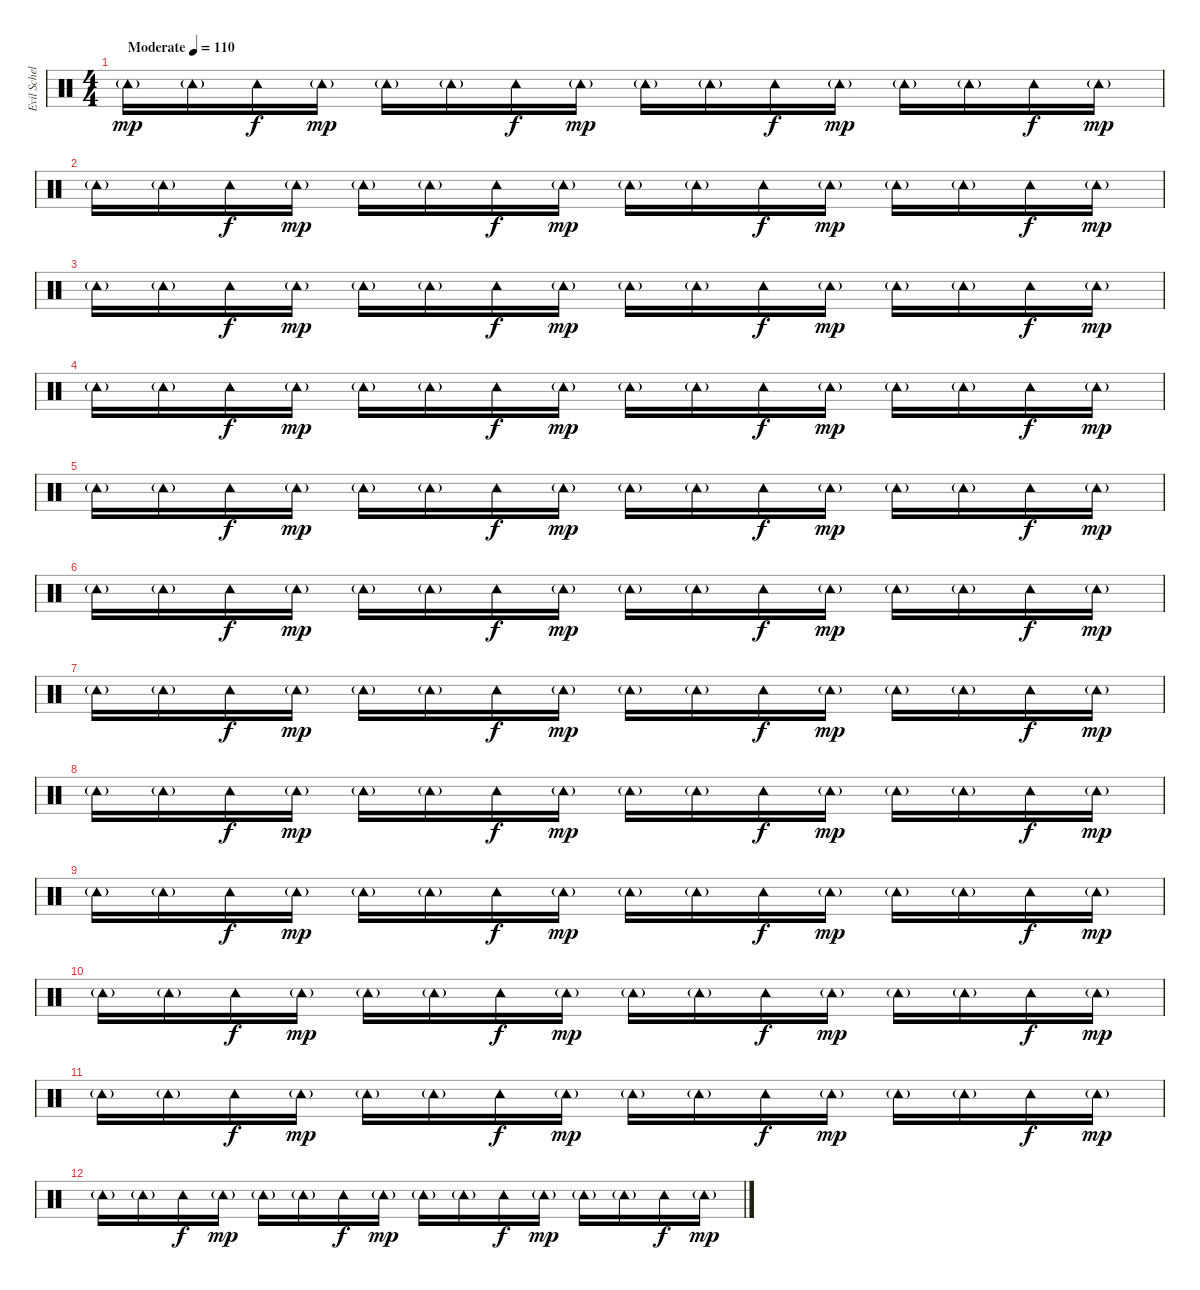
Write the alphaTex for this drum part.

\track ("Evil Schellenkranz" "Evil Schel") {instrument percussion}
\staff {score}
\articulation defaults
\ts (4 4)
\tempo (110 "Moderate")
\clef neutral
\ks c "Tambourine (hit)"{g}.16{dy mp} "Tambourine (hit)"{g}.16 "Tambourine (hit)".16{dy f} "Tambourine (hit)"{g}.16{dy mp} "Tambourine (hit)"{g}.16 "Tambourine (hit)"{g}.16 "Tambourine (hit)".16{dy f} "Tambourine (hit)"{g}.16{dy mp} "Tambourine (hit)"{g}.16 "Tambourine (hit)"{g}.16 "Tambourine (hit)".16{dy f} "Tambourine (hit)"{g}.16{dy mp} "Tambourine (hit)"{g}.16 "Tambourine (hit)"{g}.16 "Tambourine (hit)".16{dy f} "Tambourine (hit)"{g}.16{dy mp}
|
"Tambourine (hit)"{g}.16 "Tambourine (hit)"{g}.16 "Tambourine (hit)".16{dy f} "Tambourine (hit)"{g}.16{dy mp} "Tambourine (hit)"{g}.16 "Tambourine (hit)"{g}.16 "Tambourine (hit)".16{dy f} "Tambourine (hit)"{g}.16{dy mp} "Tambourine (hit)"{g}.16 "Tambourine (hit)"{g}.16 "Tambourine (hit)".16{dy f} "Tambourine (hit)"{g}.16{dy mp} "Tambourine (hit)"{g}.16 "Tambourine (hit)"{g}.16 "Tambourine (hit)".16{dy f} "Tambourine (hit)"{g}.16{dy mp} |
"Tambourine (hit)"{g}.16 "Tambourine (hit)"{g}.16 "Tambourine (hit)".16{dy f} "Tambourine (hit)"{g}.16{dy mp} "Tambourine (hit)"{g}.16 "Tambourine (hit)"{g}.16 "Tambourine (hit)".16{dy f} "Tambourine (hit)"{g}.16{dy mp} "Tambourine (hit)"{g}.16 "Tambourine (hit)"{g}.16 "Tambourine (hit)".16{dy f} "Tambourine (hit)"{g}.16{dy mp} "Tambourine (hit)"{g}.16 "Tambourine (hit)"{g}.16 "Tambourine (hit)".16{dy f} "Tambourine (hit)"{g}.16{dy mp} |
"Tambourine (hit)"{g}.16 "Tambourine (hit)"{g}.16 "Tambourine (hit)".16{dy f} "Tambourine (hit)"{g}.16{dy mp} "Tambourine (hit)"{g}.16 "Tambourine (hit)"{g}.16 "Tambourine (hit)".16{dy f} "Tambourine (hit)"{g}.16{dy mp} "Tambourine (hit)"{g}.16 "Tambourine (hit)"{g}.16 "Tambourine (hit)".16{dy f} "Tambourine (hit)"{g}.16{dy mp} "Tambourine (hit)"{g}.16 "Tambourine (hit)"{g}.16 "Tambourine (hit)".16{dy f} "Tambourine (hit)"{g}.16{dy mp} |
"Tambourine (hit)"{g}.16 "Tambourine (hit)"{g}.16 "Tambourine (hit)".16{dy f} "Tambourine (hit)"{g}.16{dy mp} "Tambourine (hit)"{g}.16 "Tambourine (hit)"{g}.16 "Tambourine (hit)".16{dy f} "Tambourine (hit)"{g}.16{dy mp} "Tambourine (hit)"{g}.16 "Tambourine (hit)"{g}.16 "Tambourine (hit)".16{dy f} "Tambourine (hit)"{g}.16{dy mp} "Tambourine (hit)"{g}.16 "Tambourine (hit)"{g}.16 "Tambourine (hit)".16{dy f} "Tambourine (hit)"{g}.16{dy mp} |
"Tambourine (hit)"{g}.16 "Tambourine (hit)"{g}.16 "Tambourine (hit)".16{dy f} "Tambourine (hit)"{g}.16{dy mp} "Tambourine (hit)"{g}.16 "Tambourine (hit)"{g}.16 "Tambourine (hit)".16{dy f} "Tambourine (hit)"{g}.16{dy mp} "Tambourine (hit)"{g}.16 "Tambourine (hit)"{g}.16 "Tambourine (hit)".16{dy f} "Tambourine (hit)"{g}.16{dy mp} "Tambourine (hit)"{g}.16 "Tambourine (hit)"{g}.16 "Tambourine (hit)".16{dy f} "Tambourine (hit)"{g}.16{dy mp} |
"Tambourine (hit)"{g}.16 "Tambourine (hit)"{g}.16 "Tambourine (hit)".16{dy f} "Tambourine (hit)"{g}.16{dy mp} "Tambourine (hit)"{g}.16 "Tambourine (hit)"{g}.16 "Tambourine (hit)".16{dy f} "Tambourine (hit)"{g}.16{dy mp} "Tambourine (hit)"{g}.16 "Tambourine (hit)"{g}.16 "Tambourine (hit)".16{dy f} "Tambourine (hit)"{g}.16{dy mp} "Tambourine (hit)"{g}.16 "Tambourine (hit)"{g}.16 "Tambourine (hit)".16{dy f} "Tambourine (hit)"{g}.16{dy mp} |
"Tambourine (hit)"{g}.16 "Tambourine (hit)"{g}.16 "Tambourine (hit)".16{dy f} "Tambourine (hit)"{g}.16{dy mp} "Tambourine (hit)"{g}.16 "Tambourine (hit)"{g}.16 "Tambourine (hit)".16{dy f} "Tambourine (hit)"{g}.16{dy mp} "Tambourine (hit)"{g}.16 "Tambourine (hit)"{g}.16 "Tambourine (hit)".16{dy f} "Tambourine (hit)"{g}.16{dy mp} "Tambourine (hit)"{g}.16 "Tambourine (hit)"{g}.16 "Tambourine (hit)".16{dy f} "Tambourine (hit)"{g}.16{dy mp} |
"Tambourine (hit)"{g}.16 "Tambourine (hit)"{g}.16 "Tambourine (hit)".16{dy f} "Tambourine (hit)"{g}.16{dy mp} "Tambourine (hit)"{g}.16 "Tambourine (hit)"{g}.16 "Tambourine (hit)".16{dy f} "Tambourine (hit)"{g}.16{dy mp} "Tambourine (hit)"{g}.16 "Tambourine (hit)"{g}.16 "Tambourine (hit)".16{dy f} "Tambourine (hit)"{g}.16{dy mp} "Tambourine (hit)"{g}.16 "Tambourine (hit)"{g}.16 "Tambourine (hit)".16{dy f} "Tambourine (hit)"{g}.16{dy mp} |
"Tambourine (hit)"{g}.16 "Tambourine (hit)"{g}.16 "Tambourine (hit)".16{dy f} "Tambourine (hit)"{g}.16{dy mp} "Tambourine (hit)"{g}.16 "Tambourine (hit)"{g}.16 "Tambourine (hit)".16{dy f} "Tambourine (hit)"{g}.16{dy mp} "Tambourine (hit)"{g}.16 "Tambourine (hit)"{g}.16 "Tambourine (hit)".16{dy f} "Tambourine (hit)"{g}.16{dy mp} "Tambourine (hit)"{g}.16 "Tambourine (hit)"{g}.16 "Tambourine (hit)".16{dy f} "Tambourine (hit)"{g}.16{dy mp} |
"Tambourine (hit)"{g}.16 "Tambourine (hit)"{g}.16 "Tambourine (hit)".16{dy f} "Tambourine (hit)"{g}.16{dy mp} "Tambourine (hit)"{g}.16 "Tambourine (hit)"{g}.16 "Tambourine (hit)".16{dy f} "Tambourine (hit)"{g}.16{dy mp} "Tambourine (hit)"{g}.16 "Tambourine (hit)"{g}.16 "Tambourine (hit)".16{dy f} "Tambourine (hit)"{g}.16{dy mp} "Tambourine (hit)"{g}.16 "Tambourine (hit)"{g}.16 "Tambourine (hit)".16{dy f} "Tambourine (hit)"{g}.16{dy mp} |
"Tambourine (hit)"{g}.16 "Tambourine (hit)"{g}.16 "Tambourine (hit)".16{dy f} "Tambourine (hit)"{g}.16{dy mp} "Tambourine (hit)"{g}.16 "Tambourine (hit)"{g}.16 "Tambourine (hit)".16{dy f} "Tambourine (hit)"{g}.16{dy mp} "Tambourine (hit)"{g}.16 "Tambourine (hit)"{g}.16 "Tambourine (hit)".16{dy f} "Tambourine (hit)"{g}.16{dy mp} "Tambourine (hit)"{g}.16 "Tambourine (hit)"{g}.16 "Tambourine (hit)".16{dy f} "Tambourine (hit)"{g}.16{dy mp}
